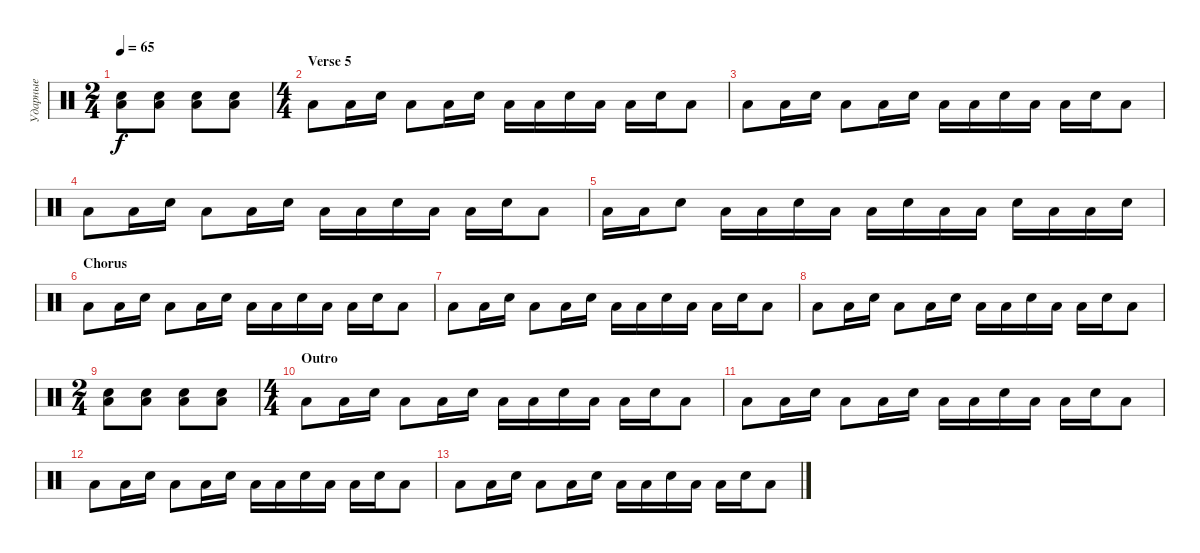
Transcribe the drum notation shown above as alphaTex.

\track ("Ударные" "Ударные") {instrument percussion}
\staff {score}
\articulation defaults
\ts (2 4)
\tempo 65
\clef neutral
\ks c
("Snare (hit) 2" "Low Tom (hit)").8{dy f} ("Snare (hit) 2" "Low Tom (hit)").8 ("Snare (hit) 2" "Low Tom (hit)").8 ("Snare (hit) 2" "Low Tom (hit)").8 |
\ts (4 4)
\section ("" "Verse 5")
"Low Tom (hit)".8 "Low Tom (hit)".16 "Snare (hit) 2".16 "Low Tom (hit)".8 "Low Tom (hit)".16 "Snare (hit) 2".16 "Low Tom (hit)".16 "Low Tom (hit)".16 "Snare (hit) 2".16 "Low Tom (hit)".16 "Low Tom (hit)".16 "Snare (hit) 2".16 "Low Tom (hit)".8 |
"Low Tom (hit)".8 "Low Tom (hit)".16 "Snare (hit) 2".16 "Low Tom (hit)".8 "Low Tom (hit)".16 "Snare (hit) 2".16 "Low Tom (hit)".16 "Low Tom (hit)".16 "Snare (hit) 2".16 "Low Tom (hit)".16 "Low Tom (hit)".16 "Snare (hit) 2".16 "Low Tom (hit)".8 |
"Low Tom (hit)".8 "Low Tom (hit)".16 "Snare (hit) 2".16 "Low Tom (hit)".8 "Low Tom (hit)".16 "Snare (hit) 2".16 "Low Tom (hit)".16 "Low Tom (hit)".16 "Snare (hit) 2".16 "Low Tom (hit)".16 "Low Tom (hit)".16 "Snare (hit) 2".16 "Low Tom (hit)".8 |
"Low Tom (hit)".16 "Low Tom (hit)".16 "Snare (hit) 2".8 "Low Tom (hit)".16 "Low Tom (hit)".16 "Snare (hit) 2".16 "Low Tom (hit)".16 "Low Tom (hit)".16 "Snare (hit) 2".16 "Low Tom (hit)".16 "Low Tom (hit)".16 "Snare (hit) 2".16 "Low Tom (hit)".16 "Low Tom (hit)".16 "Snare (hit) 2".16 |
\section ("" "Chorus")
"Low Tom (hit)".8 "Low Tom (hit)".16 "Snare (hit) 2".16 "Low Tom (hit)".8 "Low Tom (hit)".16 "Snare (hit) 2".16 "Low Tom (hit)".16 "Low Tom (hit)".16 "Snare (hit) 2".16 "Low Tom (hit)".16 "Low Tom (hit)".16 "Snare (hit) 2".16 "Low Tom (hit)".8 |
"Low Tom (hit)".8 "Low Tom (hit)".16 "Snare (hit) 2".16 "Low Tom (hit)".8 "Low Tom (hit)".16 "Snare (hit) 2".16 "Low Tom (hit)".16 "Low Tom (hit)".16 "Snare (hit) 2".16 "Low Tom (hit)".16 "Low Tom (hit)".16 "Snare (hit) 2".16 "Low Tom (hit)".8 |
"Low Tom (hit)".8 "Low Tom (hit)".16 "Snare (hit) 2".16 "Low Tom (hit)".8 "Low Tom (hit)".16 "Snare (hit) 2".16 "Low Tom (hit)".16 "Low Tom (hit)".16 "Snare (hit) 2".16 "Low Tom (hit)".16 "Low Tom (hit)".16 "Snare (hit) 2".16 "Low Tom (hit)".8 |
\ts (2 4)
("Snare (hit) 2" "Low Tom (hit)").8 ("Snare (hit) 2" "Low Tom (hit)").8 ("Snare (hit) 2" "Low Tom (hit)").8 ("Snare (hit) 2" "Low Tom (hit)").8 |
\ts (4 4)
\section ("" "Outro")
"Low Tom (hit)".8 "Low Tom (hit)".16 "Snare (hit) 2".16 "Low Tom (hit)".8 "Low Tom (hit)".16 "Snare (hit) 2".16 "Low Tom (hit)".16 "Low Tom (hit)".16 "Snare (hit) 2".16 "Low Tom (hit)".16 "Low Tom (hit)".16 "Snare (hit) 2".16 "Low Tom (hit)".8 |
"Low Tom (hit)".8 "Low Tom (hit)".16 "Snare (hit) 2".16 "Low Tom (hit)".8 "Low Tom (hit)".16 "Snare (hit) 2".16 "Low Tom (hit)".16 "Low Tom (hit)".16 "Snare (hit) 2".16 "Low Tom (hit)".16 "Low Tom (hit)".16 "Snare (hit) 2".16 "Low Tom (hit)".8 |
"Low Tom (hit)".8 "Low Tom (hit)".16 "Snare (hit) 2".16 "Low Tom (hit)".8 "Low Tom (hit)".16 "Snare (hit) 2".16 "Low Tom (hit)".16 "Low Tom (hit)".16 "Snare (hit) 2".16 "Low Tom (hit)".16 "Low Tom (hit)".16 "Snare (hit) 2".16 "Low Tom (hit)".8 |
"Low Tom (hit)".8 "Low Tom (hit)".16 "Snare (hit) 2".16 "Low Tom (hit)".8 "Low Tom (hit)".16 "Snare (hit) 2".16 "Low Tom (hit)".16 "Low Tom (hit)".16 "Snare (hit) 2".16 "Low Tom (hit)".16 "Low Tom (hit)".16 "Snare (hit) 2".16 "Low Tom (hit)".8
